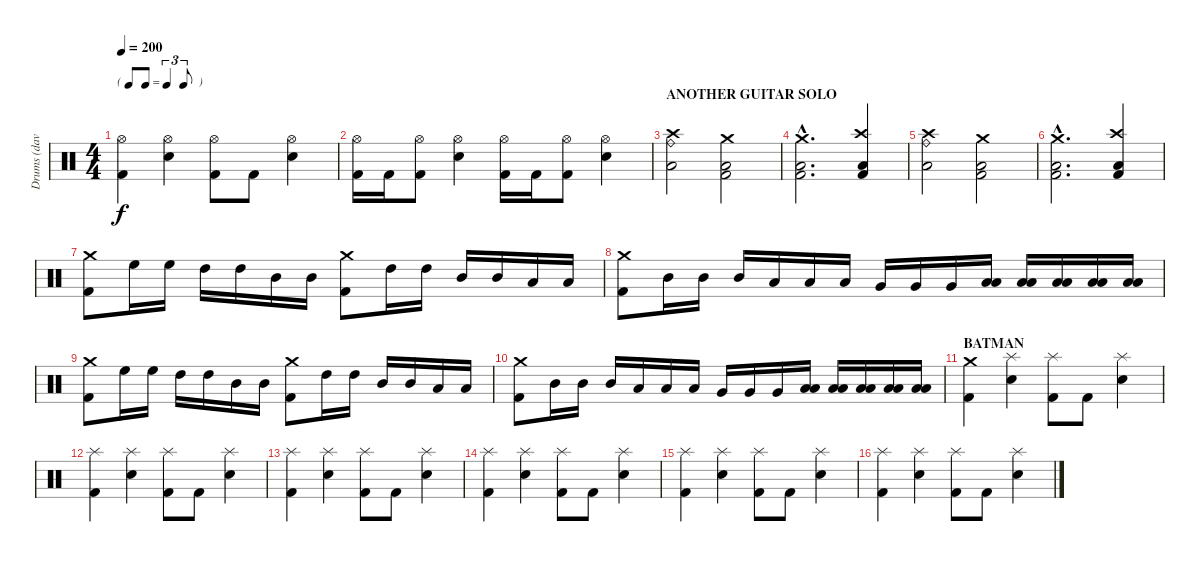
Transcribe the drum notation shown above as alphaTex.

\track ("Drums (dave)" "Drums (dav") {instrument percussion}
\staff {score}
\articulation defaults
\ts (4 4)
\tf triplet8th
\tempo 200
\clef neutral
\ks c
("Hi-Hat (open)" "Kick (hit) 2").4{dy f} ("Hi-Hat (open)" "Snare (hit) 2").4 ("Hi-Hat (open)" "Kick (hit) 2").8 "Kick (hit) 2".8 ("Hi-Hat (open)" "Snare (hit) 2").4 |
("Hi-Hat (open)" "Kick (hit) 2").16 "Kick (hit) 2".16 ("Hi-Hat (open)" "Kick (hit) 2").8 ("Hi-Hat (open)" "Snare (hit) 2").4 ("Hi-Hat (open)" "Kick (hit) 2").16 "Kick (hit) 2".16 ("Hi-Hat (open)" "Kick (hit) 2").8 ("Hi-Hat (open)" "Snare (hit) 2").4 |
\section ("" "ANOTHER GUITAR SOLO")
("Crash high (hit)" "Ride (bell)" "Low Floor Tom (hit)").2 ("Crash medium (hit)" "Kick (hit) 2" "Low Floor Tom (hit)").2 |
("Crash medium (hit)"{hac} "Kick (hit) 2"{hac} "Low Floor Tom (hit)"{hac}).2{d} ("Crash high (hit)" "Kick (hit) 2" "Low Floor Tom (hit)").4 |
("Crash high (hit)" "Ride (bell)" "Low Floor Tom (hit)").2 ("Crash medium (hit)" "Kick (hit) 2" "Low Floor Tom (hit)").2 |
("Crash medium (hit)"{hac} "Kick (hit) 2"{hac} "Low Floor Tom (hit)"{hac}).2{d} ("Crash high (hit)" "Kick (hit) 2" "Low Floor Tom (hit)").4 |
("Crash medium (hit)" "Kick (hit) 2").8 "High Floor Tom (hit)".16 "High Floor Tom (hit)".16 "High Tom (hit)".16 "High Tom (hit)".16 "Mid Tom (hit)".16 "Mid Tom (hit)".16 ("Crash medium (hit)" "Kick (hit) 2").8 "High Tom (hit)".16 "High Tom (hit)".16 "Mid Tom (hit)".16 "Mid Tom (hit)".16 "Low Tom (hit)".16 "Low Tom (hit)".16 |
("Crash medium (hit)" "Kick (hit) 2").8 "Mid Tom (hit)".16 "Mid Tom (hit)".16 "Mid Tom (hit)".16 "Low Tom (hit)".16 "Low Tom (hit)".16 "Low Tom (hit)".16 "Very Low Tom (hit)".16 "Very Low Tom (hit)".16 "Very Low Tom (hit)".16 ("Low Floor Tom (hit)" "Low Floor Tom (hit)").16 ("Low Floor Tom (hit)" "Low Floor Tom (hit)").16 ("Low Floor Tom (hit)" "Low Floor Tom (hit)").16 ("Low Floor Tom (hit)" "Low Floor Tom (hit)").16 ("Low Floor Tom (hit)" "Low Floor Tom (hit)").16 |
("Crash medium (hit)" "Kick (hit) 2").8 "High Floor Tom (hit)".16 "High Floor Tom (hit)".16 "High Tom (hit)".16 "High Tom (hit)".16 "Mid Tom (hit)".16 "Mid Tom (hit)".16 ("Crash medium (hit)" "Kick (hit) 2").8 "High Tom (hit)".16 "High Tom (hit)".16 "Mid Tom (hit)".16 "Mid Tom (hit)".16 "Low Tom (hit)".16 "Low Tom (hit)".16 |
("Crash medium (hit)" "Kick (hit) 2").8 "Mid Tom (hit)".16 "Mid Tom (hit)".16 "Mid Tom (hit)".16 "Low Tom (hit)".16 "Low Tom (hit)".16 "Low Tom (hit)".16 "Very Low Tom (hit)".16 "Very Low Tom (hit)".16 "Very Low Tom (hit)".16 ("Low Floor Tom (hit)" "Low Floor Tom (hit)").16 ("Low Floor Tom (hit)" "Low Floor Tom (hit)").16 ("Low Floor Tom (hit)" "Low Floor Tom (hit)").16 ("Low Floor Tom (hit)" "Low Floor Tom (hit)").16 ("Low Floor Tom (hit)" "Low Floor Tom (hit)").16 |
\section ("" "BATMAN")
("Crash medium (hit)" "Kick (hit) 2").4 ("Splash (hit)" "Snare (hit) 2").4 ("Splash (hit)" "Kick (hit) 2").8 "Kick (hit) 2".8 ("Splash (hit)" "Snare (hit) 2").4 |
("Splash (hit)" "Kick (hit) 2").4 ("Splash (hit)" "Snare (hit) 2").4 ("Splash (hit)" "Kick (hit) 2").8 "Kick (hit) 2".8 ("Splash (hit)" "Snare (hit) 2").4 |
("Splash (hit)" "Kick (hit) 2").4 ("Splash (hit)" "Snare (hit) 2").4 ("Splash (hit)" "Kick (hit) 2").8 "Kick (hit) 2".8 ("Splash (hit)" "Snare (hit) 2").4 |
("Splash (hit)" "Kick (hit) 2").4 ("Splash (hit)" "Snare (hit) 2").4 ("Splash (hit)" "Kick (hit) 2").8 "Kick (hit) 2".8 ("Splash (hit)" "Snare (hit) 2").4 |
("Splash (hit)" "Kick (hit) 2").4 ("Splash (hit)" "Snare (hit) 2").4 ("Splash (hit)" "Kick (hit) 2").8 "Kick (hit) 2".8 ("Splash (hit)" "Snare (hit) 2").4 |
("Splash (hit)" "Kick (hit) 2").4 ("Splash (hit)" "Snare (hit) 2").4 ("Splash (hit)" "Kick (hit) 2").8 "Kick (hit) 2".8 ("Splash (hit)" "Snare (hit) 2").4
